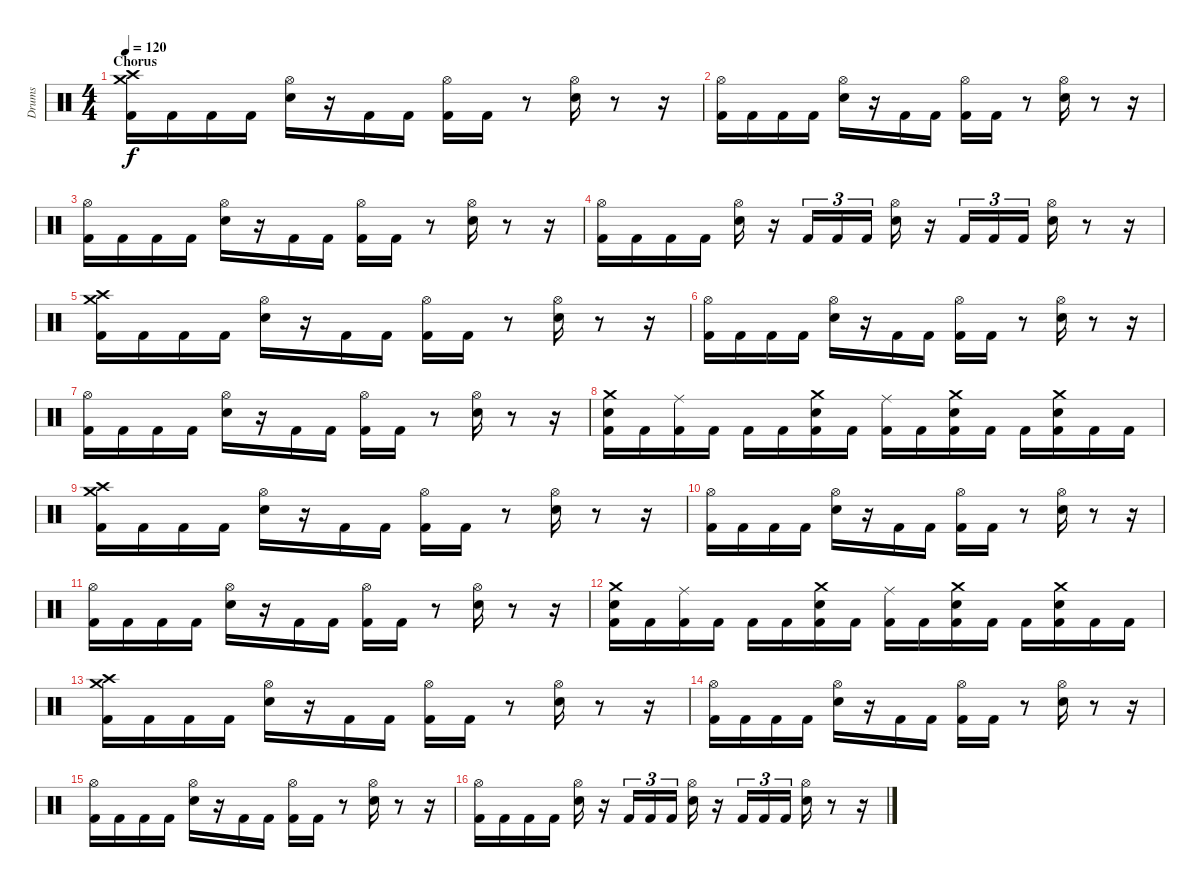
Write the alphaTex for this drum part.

\track ("Drums" "Drums") {instrument percussion}
\staff {score}
\articulation defaults
\ts (4 4)
\section ("" "Chorus")
\tempo 120
\clef neutral
\ks c
("Crash medium (hit)" "Crash high (hit)" "Kick (hit) 2").16{dy f} "Kick (hit) 2".16 "Kick (hit) 2".16 "Kick (hit) 2".16 ("Hi-Hat (open)" "Electric Snare (hit)").16 r.16 "Kick (hit) 2".16 "Kick (hit) 2".16 ("Hi-Hat (open)" "Kick (hit) 2").16 "Kick (hit) 2".16 r.8 ("Hi-Hat (open)" "Electric Snare (hit)").16 r.8 r.16 |
("Hi-Hat (open)" "Kick (hit) 2").16 "Kick (hit) 2".16 "Kick (hit) 2".16 "Kick (hit) 2".16 ("Hi-Hat (open)" "Electric Snare (hit)").16 r.16 "Kick (hit) 2".16 "Kick (hit) 2".16 ("Hi-Hat (open)" "Kick (hit) 2").16 "Kick (hit) 2".16 r.8 ("Hi-Hat (open)" "Electric Snare (hit)").16 r.8 r.16 |
("Hi-Hat (open)" "Kick (hit) 2").16 "Kick (hit) 2".16 "Kick (hit) 2".16 "Kick (hit) 2".16 ("Hi-Hat (open)" "Electric Snare (hit)").16 r.16 "Kick (hit) 2".16 "Kick (hit) 2".16 ("Hi-Hat (open)" "Kick (hit) 2").16 "Kick (hit) 2".16 r.8 ("Hi-Hat (open)" "Electric Snare (hit)").16 r.8 r.16 |
("Hi-Hat (open)" "Kick (hit) 2").16 "Kick (hit) 2".16 "Kick (hit) 2".16 "Kick (hit) 2".16 ("Hi-Hat (open)" "Electric Snare (hit)").16 r.16 "Kick (hit) 2".16{tu (3 2)} "Kick (hit) 2".16{tu (3 2)} "Kick (hit) 2".16{tu (3 2)} ("Hi-Hat (open)" "Electric Snare (hit)").16 r.16 "Kick (hit) 2".16{tu (3 2)} "Kick (hit) 2".16{tu (3 2)} "Kick (hit) 2".16{tu (3 2)} ("Hi-Hat (open)" "Electric Snare (hit)").16 r.8 r.16 |
("Crash medium (hit)" "Crash high (hit)" "Kick (hit) 2").16 "Kick (hit) 2".16 "Kick (hit) 2".16 "Kick (hit) 2".16 ("Hi-Hat (open)" "Electric Snare (hit)").16 r.16 "Kick (hit) 2".16 "Kick (hit) 2".16 ("Hi-Hat (open)" "Kick (hit) 2").16 "Kick (hit) 2".16 r.8 ("Hi-Hat (open)" "Electric Snare (hit)").16 r.8 r.16 |
("Hi-Hat (open)" "Kick (hit) 2").16 "Kick (hit) 2".16 "Kick (hit) 2".16 "Kick (hit) 2".16 ("Hi-Hat (open)" "Electric Snare (hit)").16 r.16 "Kick (hit) 2".16 "Kick (hit) 2".16 ("Hi-Hat (open)" "Kick (hit) 2").16 "Kick (hit) 2".16 r.8 ("Hi-Hat (open)" "Electric Snare (hit)").16 r.8 r.16 |
("Hi-Hat (open)" "Kick (hit) 2").16 "Kick (hit) 2".16 "Kick (hit) 2".16 "Kick (hit) 2".16 ("Hi-Hat (open)" "Electric Snare (hit)").16 r.16 "Kick (hit) 2".16 "Kick (hit) 2".16 ("Hi-Hat (open)" "Kick (hit) 2").16 "Kick (hit) 2".16 r.8 ("Hi-Hat (open)" "Electric Snare (hit)").16 r.8 r.16 |
("Crash medium (hit)" "Electric Snare (hit)" "Kick (hit) 2").16 "Kick (hit) 2".16 ("Ride (middle)" "Kick (hit) 2").16 "Kick (hit) 2".16 "Kick (hit) 2".16 "Kick (hit) 2".16 ("Crash medium (hit)" "Electric Snare (hit)" "Kick (hit) 2").16 "Kick (hit) 2".16 ("Ride (middle)" "Kick (hit) 2").16 "Kick (hit) 2".16 ("Crash medium (hit)" "Electric Snare (hit)" "Kick (hit) 2").16 "Kick (hit) 2".16 "Kick (hit) 2".16 ("Crash medium (hit)" "Electric Snare (hit)" "Kick (hit) 2").16 "Kick (hit) 2".16 "Kick (hit) 2".16 |
("Crash medium (hit)" "Crash high (hit)" "Kick (hit) 2").16 "Kick (hit) 2".16 "Kick (hit) 2".16 "Kick (hit) 2".16 ("Hi-Hat (open)" "Electric Snare (hit)").16 r.16 "Kick (hit) 2".16 "Kick (hit) 2".16 ("Hi-Hat (open)" "Kick (hit) 2").16 "Kick (hit) 2".16 r.8 ("Hi-Hat (open)" "Electric Snare (hit)").16 r.8 r.16 |
("Hi-Hat (open)" "Kick (hit) 2").16 "Kick (hit) 2".16 "Kick (hit) 2".16 "Kick (hit) 2".16 ("Hi-Hat (open)" "Electric Snare (hit)").16 r.16 "Kick (hit) 2".16 "Kick (hit) 2".16 ("Hi-Hat (open)" "Kick (hit) 2").16 "Kick (hit) 2".16 r.8 ("Hi-Hat (open)" "Electric Snare (hit)").16 r.8 r.16 |
("Hi-Hat (open)" "Kick (hit) 2").16 "Kick (hit) 2".16 "Kick (hit) 2".16 "Kick (hit) 2".16 ("Hi-Hat (open)" "Electric Snare (hit)").16 r.16 "Kick (hit) 2".16 "Kick (hit) 2".16 ("Hi-Hat (open)" "Kick (hit) 2").16 "Kick (hit) 2".16 r.8 ("Hi-Hat (open)" "Electric Snare (hit)").16 r.8 r.16 |
("Crash medium (hit)" "Electric Snare (hit)" "Kick (hit) 2").16 "Kick (hit) 2".16 ("Ride (middle)" "Kick (hit) 2").16 "Kick (hit) 2".16 "Kick (hit) 2".16 "Kick (hit) 2".16 ("Crash medium (hit)" "Electric Snare (hit)" "Kick (hit) 2").16 "Kick (hit) 2".16 ("Ride (middle)" "Kick (hit) 2").16 "Kick (hit) 2".16 ("Crash medium (hit)" "Electric Snare (hit)" "Kick (hit) 2").16 "Kick (hit) 2".16 "Kick (hit) 2".16 ("Crash medium (hit)" "Electric Snare (hit)" "Kick (hit) 2").16 "Kick (hit) 2".16 "Kick (hit) 2".16 |
("Crash medium (hit)" "Crash high (hit)" "Kick (hit) 2").16 "Kick (hit) 2".16 "Kick (hit) 2".16 "Kick (hit) 2".16 ("Hi-Hat (open)" "Electric Snare (hit)").16 r.16 "Kick (hit) 2".16 "Kick (hit) 2".16 ("Hi-Hat (open)" "Kick (hit) 2").16 "Kick (hit) 2".16 r.8 ("Hi-Hat (open)" "Electric Snare (hit)").16 r.8 r.16 |
("Hi-Hat (open)" "Kick (hit) 2").16 "Kick (hit) 2".16 "Kick (hit) 2".16 "Kick (hit) 2".16 ("Hi-Hat (open)" "Electric Snare (hit)").16 r.16 "Kick (hit) 2".16 "Kick (hit) 2".16 ("Hi-Hat (open)" "Kick (hit) 2").16 "Kick (hit) 2".16 r.8 ("Hi-Hat (open)" "Electric Snare (hit)").16 r.8 r.16 |
("Hi-Hat (open)" "Kick (hit) 2").16 "Kick (hit) 2".16 "Kick (hit) 2".16 "Kick (hit) 2".16 ("Hi-Hat (open)" "Electric Snare (hit)").16 r.16 "Kick (hit) 2".16 "Kick (hit) 2".16 ("Hi-Hat (open)" "Kick (hit) 2").16 "Kick (hit) 2".16 r.8 ("Hi-Hat (open)" "Electric Snare (hit)").16 r.8 r.16 |
("Hi-Hat (open)" "Kick (hit) 2").16 "Kick (hit) 2".16 "Kick (hit) 2".16 "Kick (hit) 2".16 ("Hi-Hat (open)" "Electric Snare (hit)").16 r.16 "Kick (hit) 2".16{tu (3 2)} "Kick (hit) 2".16{tu (3 2)} "Kick (hit) 2".16{tu (3 2)} ("Hi-Hat (open)" "Electric Snare (hit)").16 r.16 "Kick (hit) 2".16{tu (3 2)} "Kick (hit) 2".16{tu (3 2)} "Kick (hit) 2".16{tu (3 2)} ("Hi-Hat (open)" "Electric Snare (hit)").16 r.8 r.16
